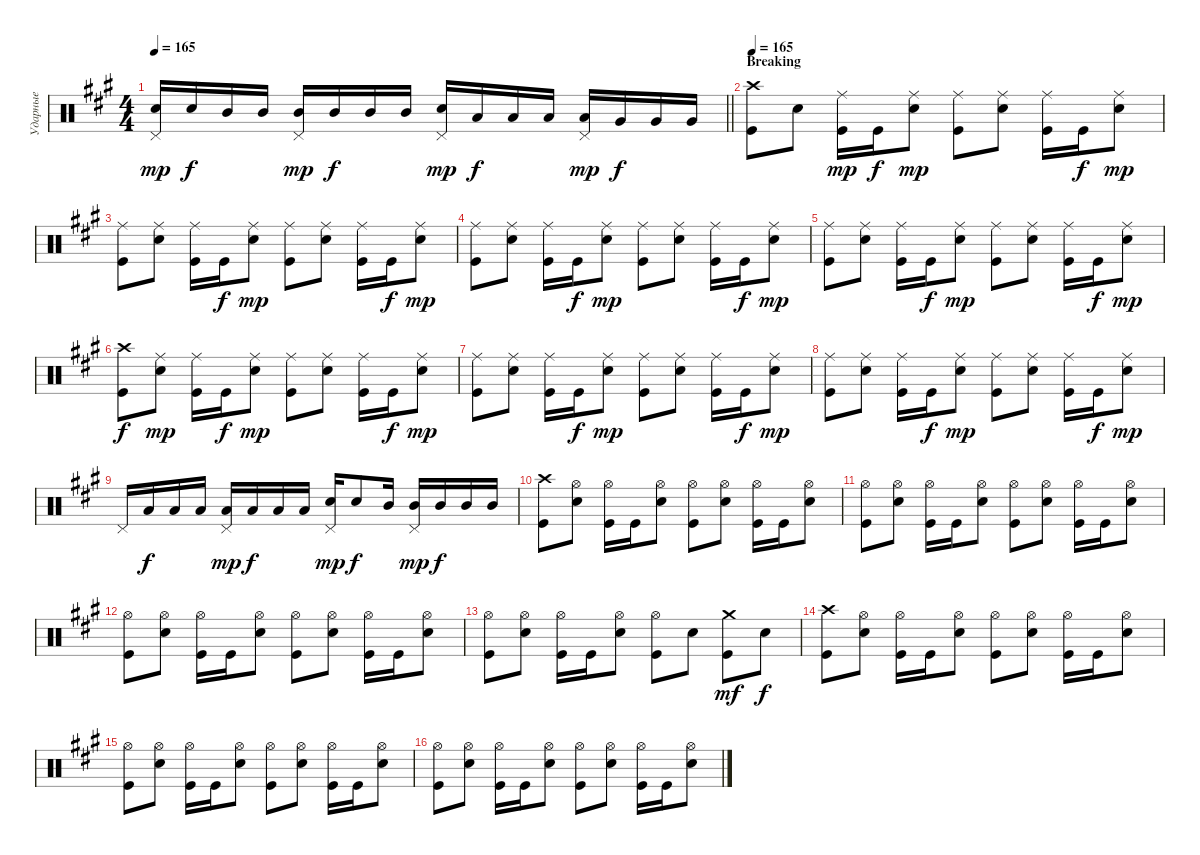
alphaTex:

\track ("Ударные" "Ударные") {instrument percussion}
\staff {score}
\articulation defaults
\ts (4 4)
\tempo 165
\clef neutral
\barLineRight lightlight
\ks f#minor
("Snare (hit) 2" "Pedal Hi-Hat (hit)").16{dy mp} "Snare (hit) 2".16{dy f} "Mid Tom (hit)".16 "Mid Tom (hit)".16 ("Mid Tom (hit)" "Pedal Hi-Hat (hit)").16{dy mp} "Mid Tom (hit)".16{dy f} "Mid Tom (hit)".16 "Mid Tom (hit)".16 ("Snare (hit) 2" "Pedal Hi-Hat (hit)").16{dy mp} "Low Tom (hit)".16{dy f} "Low Tom (hit)".16 "Low Tom (hit)".16 ("Low Tom (hit)" "Pedal Hi-Hat (hit)").16{dy mp} "Very Low Tom (hit)".16{dy f} "Very Low Tom (hit)".16 "Very Low Tom (hit)".16 |
\section ("" "Breaking")
\tempo 165
("Kick (hit)" "Crash high (hit)").8 "Snare (hit) 2".8 ("Kick (hit)" "Ride (middle)").16{dy mp} "Kick (hit)".16{dy f} ("Snare (hit) 2" "Ride (middle)").8{dy mp} ("Kick (hit)" "Ride (middle)").8 ("Snare (hit) 2" "Ride (middle)").8 ("Kick (hit)" "Ride (middle)").16 "Kick (hit)".16{dy f} ("Snare (hit) 2" "Ride (middle)").8{dy mp} |
("Kick (hit)" "Ride (middle)").8 ("Snare (hit) 2" "Ride (middle)").8 ("Kick (hit)" "Ride (middle)").16 "Kick (hit)".16{dy f} ("Snare (hit) 2" "Ride (middle)").8{dy mp} ("Kick (hit)" "Ride (middle)").8 ("Snare (hit) 2" "Ride (middle)").8 ("Kick (hit)" "Ride (middle)").16 "Kick (hit)".16{dy f} ("Snare (hit) 2" "Ride (middle)").8{dy mp} |
("Kick (hit)" "Ride (middle)").8 ("Snare (hit) 2" "Ride (middle)").8 ("Kick (hit)" "Ride (middle)").16 "Kick (hit)".16{dy f} ("Snare (hit) 2" "Ride (middle)").8{dy mp} ("Kick (hit)" "Ride (middle)").8 ("Snare (hit) 2" "Ride (middle)").8 ("Kick (hit)" "Ride (middle)").16 "Kick (hit)".16{dy f} ("Snare (hit) 2" "Ride (middle)").8{dy mp} |
("Kick (hit)" "Ride (middle)").8 ("Snare (hit) 2" "Ride (middle)").8 ("Kick (hit)" "Ride (middle)").16 "Kick (hit)".16{dy f} ("Snare (hit) 2" "Ride (middle)").8{dy mp} ("Kick (hit)" "Ride (middle)").8 ("Snare (hit) 2" "Ride (middle)").8 ("Kick (hit)" "Ride (middle)").16 "Kick (hit)".16{dy f} ("Snare (hit) 2" "Ride (middle)").8{dy mp} |
("Kick (hit)" "Crash high (hit)").8{dy f} ("Snare (hit) 2" "Ride (middle)").8{dy mp} ("Kick (hit)" "Ride (middle)").16 "Kick (hit)".16{dy f} ("Snare (hit) 2" "Ride (middle)").8{dy mp} ("Kick (hit)" "Ride (middle)").8 ("Snare (hit) 2" "Ride (middle)").8 ("Kick (hit)" "Ride (middle)").16 "Kick (hit)".16{dy f} ("Snare (hit) 2" "Ride (middle)").8{dy mp} |
("Kick (hit)" "Ride (middle)").8 ("Snare (hit) 2" "Ride (middle)").8 ("Kick (hit)" "Ride (middle)").16 "Kick (hit)".16{dy f} ("Snare (hit) 2" "Ride (middle)").8{dy mp} ("Kick (hit)" "Ride (middle)").8 ("Snare (hit) 2" "Ride (middle)").8 ("Kick (hit)" "Ride (middle)").16 "Kick (hit)".16{dy f} ("Snare (hit) 2" "Ride (middle)").8{dy mp} |
("Kick (hit)" "Ride (middle)").8 ("Snare (hit) 2" "Ride (middle)").8 ("Kick (hit)" "Ride (middle)").16 "Kick (hit)".16{dy f} ("Snare (hit) 2" "Ride (middle)").8{dy mp} ("Kick (hit)" "Ride (middle)").8 ("Snare (hit) 2" "Ride (middle)").8 ("Kick (hit)" "Ride (middle)").16 "Kick (hit)".16{dy f} ("Snare (hit) 2" "Ride (middle)").8{dy mp} |
"Pedal Hi-Hat (hit)".16 "Low Tom (hit)".16{dy f} "Low Tom (hit)".16 "Low Tom (hit)".16 ("Low Tom (hit)" "Pedal Hi-Hat (hit)").16{dy mp} "Low Tom (hit)".16{dy f} "Low Tom (hit)".16 "Low Tom (hit)".16 ("Snare (hit) 2" "Pedal Hi-Hat (hit)").16{dy mp} "Snare (hit) 2".8{dy f} "Mid Tom (hit)".16 ("Mid Tom (hit)" "Pedal Hi-Hat (hit)").16{dy mp} "Mid Tom (hit)".16{dy f} "Mid Tom (hit)".16 "Mid Tom (hit)".16 |
("Kick (hit)" "Crash high (hit)").8 ("Snare (hit) 2" "Hi-Hat (open)").8 ("Kick (hit)" "Hi-Hat (open)").16 "Kick (hit)".16 ("Snare (hit) 2" "Hi-Hat (open)").8 ("Kick (hit)" "Hi-Hat (open)").8 ("Snare (hit) 2" "Hi-Hat (open)").8 ("Kick (hit)" "Hi-Hat (open)").16 "Kick (hit)".16 ("Snare (hit) 2" "Hi-Hat (open)").8 |
("Kick (hit)" "Hi-Hat (open)").8 ("Snare (hit) 2" "Hi-Hat (open)").8 ("Kick (hit)" "Hi-Hat (open)").16 "Kick (hit)".16 ("Snare (hit) 2" "Hi-Hat (open)").8 ("Kick (hit)" "Hi-Hat (open)").8 ("Snare (hit) 2" "Hi-Hat (open)").8 ("Kick (hit)" "Hi-Hat (open)").16 "Kick (hit)".16 ("Snare (hit) 2" "Hi-Hat (open)").8 |
("Kick (hit)" "Hi-Hat (open)").8 ("Snare (hit) 2" "Hi-Hat (open)").8 ("Kick (hit)" "Hi-Hat (open)").16 "Kick (hit)".16 ("Snare (hit) 2" "Hi-Hat (open)").8 ("Kick (hit)" "Hi-Hat (open)").8 ("Snare (hit) 2" "Hi-Hat (open)").8 ("Kick (hit)" "Hi-Hat (open)").16 "Kick (hit)".16 ("Snare (hit) 2" "Hi-Hat (open)").8 |
("Kick (hit)" "Hi-Hat (open)").8 ("Snare (hit) 2" "Hi-Hat (open)").8 ("Kick (hit)" "Hi-Hat (open)").16 "Kick (hit)".16 ("Snare (hit) 2" "Hi-Hat (open)").8 ("Kick (hit)" "Hi-Hat (open)").8 "Snare (hit) 2".8 ("Kick (hit)" "Crash medium (hit)").8{dy mf} "Snare (hit) 2".8{dy f} |
("Kick (hit)" "Crash high (hit)").8 ("Snare (hit) 2" "Hi-Hat (open)").8 ("Kick (hit)" "Hi-Hat (open)").16 "Kick (hit)".16 ("Snare (hit) 2" "Hi-Hat (open)").8 ("Kick (hit)" "Hi-Hat (open)").8 ("Snare (hit) 2" "Hi-Hat (open)").8 ("Kick (hit)" "Hi-Hat (open)").16 "Kick (hit)".16 ("Snare (hit) 2" "Hi-Hat (open)").8 |
("Kick (hit)" "Hi-Hat (open)").8 ("Snare (hit) 2" "Hi-Hat (open)").8 ("Kick (hit)" "Hi-Hat (open)").16 "Kick (hit)".16 ("Snare (hit) 2" "Hi-Hat (open)").8 ("Kick (hit)" "Hi-Hat (open)").8 ("Snare (hit) 2" "Hi-Hat (open)").8 ("Kick (hit)" "Hi-Hat (open)").16 "Kick (hit)".16 ("Snare (hit) 2" "Hi-Hat (open)").8 |
("Kick (hit)" "Hi-Hat (open)").8 ("Snare (hit) 2" "Hi-Hat (open)").8 ("Kick (hit)" "Hi-Hat (open)").16 "Kick (hit)".16 ("Snare (hit) 2" "Hi-Hat (open)").8 ("Kick (hit)" "Hi-Hat (open)").8 ("Snare (hit) 2" "Hi-Hat (open)").8 ("Kick (hit)" "Hi-Hat (open)").16 "Kick (hit)".16 ("Snare (hit) 2" "Hi-Hat (open)").8
